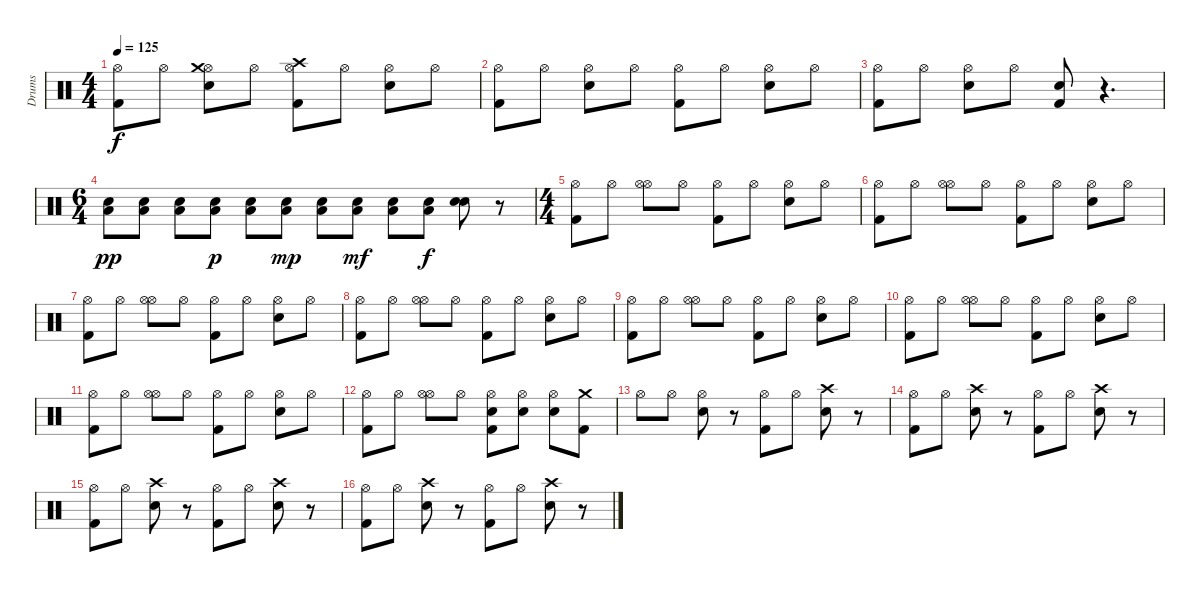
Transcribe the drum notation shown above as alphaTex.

\track ("Drums" "Drums") {instrument percussion}
\staff {score}
\articulation defaults
\ts (4 4)
\tempo 125
\clef neutral
\ks c
("Kick (hit) 2" "Hi-Hat (open)").8{dy f} "Hi-Hat (open)".8 ("Electric Snare (hit)" "Hi-Hat (open)" "Crash medium (hit)").8 "Hi-Hat (open)".8 ("Kick (hit) 2" "Hi-Hat (open)" "Crash high (hit)").8 "Hi-Hat (open)".8 ("Electric Snare (hit)" "Hi-Hat (open)").8 "Hi-Hat (open)".8 |
("Kick (hit) 2" "Hi-Hat (open)").8 "Hi-Hat (open)".8 ("Electric Snare (hit)" "Hi-Hat (open)").8 "Hi-Hat (open)".8 ("Kick (hit) 2" "Hi-Hat (open)").8 "Hi-Hat (open)".8 ("Electric Snare (hit)" "Hi-Hat (open)").8 "Hi-Hat (open)".8 |
("Kick (hit) 2" "Hi-Hat (open)").8 "Hi-Hat (open)".8 ("Electric Snare (hit)" "Hi-Hat (open)").8 "Hi-Hat (open)".8 ("Kick (hit) 2" "Electric Snare (hit)").8 r.4{d} |
\ts (6 4)
("Electric Snare (hit)" "Low Tom (hit)").8{dy pp} ("Electric Snare (hit)" "Low Tom (hit)").8 ("Electric Snare (hit)" "Low Tom (hit)").8 ("Electric Snare (hit)" "Low Tom (hit)").8{dy p} ("Electric Snare (hit)" "Low Tom (hit)").8 ("Electric Snare (hit)" "Low Tom (hit)").8{dy mp} ("Electric Snare (hit)" "Low Tom (hit)").8 ("Electric Snare (hit)" "Low Tom (hit)").8{dy mf} ("Electric Snare (hit)" "Low Tom (hit)").8 ("Electric Snare (hit)" "Low Tom (hit)").8{dy f} ("Snare (hit) 2" "Electric Snare (hit)").8 r.8 |
\ts (4 4)
("Kick (hit) 2" "Hi-Hat (open)").8 "Hi-Hat (open)".8 ("Hi-Hat (open)" "Hi-Hat (open)").8 "Hi-Hat (open)".8 ("Kick (hit) 2" "Hi-Hat (open)").8 "Hi-Hat (open)".8 ("Electric Snare (hit)" "Hi-Hat (open)").8 "Hi-Hat (open)".8 |
("Kick (hit) 2" "Hi-Hat (open)").8 "Hi-Hat (open)".8 ("Hi-Hat (open)" "Hi-Hat (open)").8 "Hi-Hat (open)".8 ("Kick (hit) 2" "Hi-Hat (open)").8 "Hi-Hat (open)".8 ("Electric Snare (hit)" "Hi-Hat (open)").8 "Hi-Hat (open)".8 |
("Kick (hit) 2" "Hi-Hat (open)").8 "Hi-Hat (open)".8 ("Hi-Hat (open)" "Hi-Hat (open)").8 "Hi-Hat (open)".8 ("Kick (hit) 2" "Hi-Hat (open)").8 "Hi-Hat (open)".8 ("Electric Snare (hit)" "Hi-Hat (open)").8 "Hi-Hat (open)".8 |
("Kick (hit) 2" "Hi-Hat (open)").8 "Hi-Hat (open)".8 ("Hi-Hat (open)" "Hi-Hat (open)").8 "Hi-Hat (open)".8 ("Kick (hit) 2" "Hi-Hat (open)").8 "Hi-Hat (open)".8 ("Electric Snare (hit)" "Hi-Hat (open)").8 "Hi-Hat (open)".8 |
("Kick (hit) 2" "Hi-Hat (open)").8 "Hi-Hat (open)".8 ("Hi-Hat (open)" "Hi-Hat (open)").8 "Hi-Hat (open)".8 ("Kick (hit) 2" "Hi-Hat (open)").8 "Hi-Hat (open)".8 ("Electric Snare (hit)" "Hi-Hat (open)").8 "Hi-Hat (open)".8 |
("Kick (hit) 2" "Hi-Hat (open)").8 "Hi-Hat (open)".8 ("Hi-Hat (open)" "Hi-Hat (open)").8 "Hi-Hat (open)".8 ("Kick (hit) 2" "Hi-Hat (open)").8 "Hi-Hat (open)".8 ("Electric Snare (hit)" "Hi-Hat (open)").8 "Hi-Hat (open)".8 |
("Kick (hit) 2" "Hi-Hat (open)").8 "Hi-Hat (open)".8 ("Hi-Hat (open)" "Hi-Hat (open)").8 "Hi-Hat (open)".8 ("Kick (hit) 2" "Hi-Hat (open)").8 "Hi-Hat (open)".8 ("Electric Snare (hit)" "Hi-Hat (open)").8 "Hi-Hat (open)".8 |
("Kick (hit) 2" "Hi-Hat (open)").8 "Hi-Hat (open)".8 ("Hi-Hat (open)" "Hi-Hat (open)").8 "Hi-Hat (open)".8 ("Kick (hit) 2" "Electric Snare (hit)" "Hi-Hat (open)").8 ("Electric Snare (hit)" "Hi-Hat (open)").8 ("Electric Snare (hit)" "Hi-Hat (open)").8 ("Kick (hit) 2" "Crash medium (hit)").8 |
"Hi-Hat (open)".8 "Hi-Hat (open)".8 ("Electric Snare (hit)" "Hi-Hat (open)").8 r.8 ("Kick (hit) 2" "Hi-Hat (open)").8 "Hi-Hat (open)".8 ("Electric Snare (hit)" "Crash high (hit)").8 r.8 |
("Kick (hit) 2" "Hi-Hat (open)").8 "Hi-Hat (open)".8 ("Electric Snare (hit)" "Crash high (hit)").8 r.8 ("Kick (hit) 2" "Hi-Hat (open)").8 "Hi-Hat (open)".8 ("Electric Snare (hit)" "Crash high (hit)").8 r.8 |
("Kick (hit) 2" "Hi-Hat (open)").8 "Hi-Hat (open)".8 ("Electric Snare (hit)" "Crash high (hit)").8 r.8 ("Kick (hit) 2" "Hi-Hat (open)").8 "Hi-Hat (open)".8 ("Electric Snare (hit)" "Crash high (hit)").8 r.8 |
("Kick (hit) 2" "Hi-Hat (open)").8 "Hi-Hat (open)".8 ("Electric Snare (hit)" "Crash high (hit)").8 r.8 ("Kick (hit) 2" "Hi-Hat (open)").8 "Hi-Hat (open)".8 ("Electric Snare (hit)" "Crash high (hit)").8 r.8
